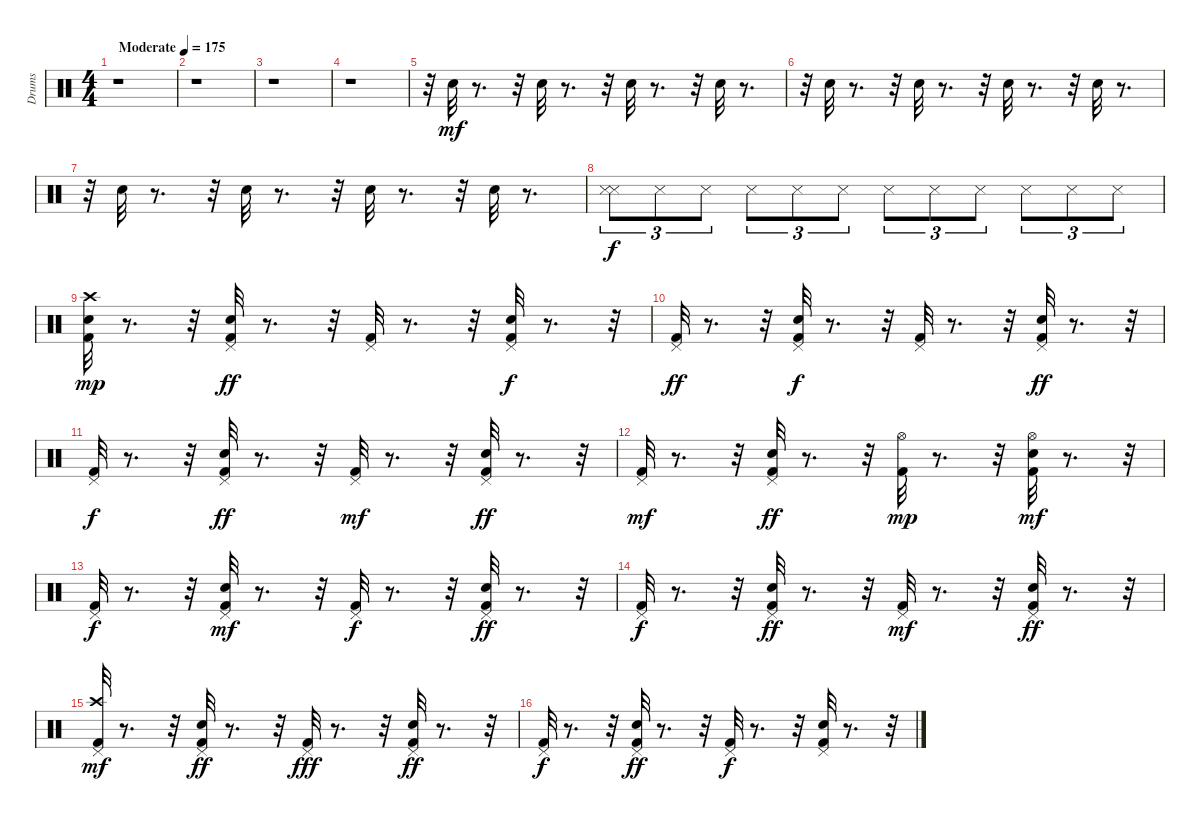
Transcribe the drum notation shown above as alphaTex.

\track ("Drums" "Drums") {instrument percussion}
\staff {score}
\articulation defaults
\ts (4 4)
\tempo (175 "Moderate")
\clef neutral
\ks c
r.1{dy mf} |
r.1 |
r.1 |
r.1 |
r.32 "Hand Clap (hit)".32 r.8{d} r.32 "Hand Clap (hit)".32 r.8{d} r.32 "Hand Clap (hit)".32 r.8{d} r.32 "Hand Clap (hit)".32 r.8{d} |
r.32 "Hand Clap (hit)".32 r.8{d} r.32 "Hand Clap (hit)".32 r.8{d} r.32 "Hand Clap (hit)".32 r.8{d} r.32 "Hand Clap (hit)".32 r.8{d} |
r.32 "Hand Clap (hit)".32 r.8{d} r.32 "Hand Clap (hit)".32 r.8{d} r.32 "Hand Clap (hit)".32 r.8{d} r.32 "Hand Clap (hit)".32 r.8{d} |
("Snare (side stick) 3" "Snare (side stick) 3").8{tu (3 2) dy f} "Snare (side stick) 3".8{tu (3 2)} "Snare (side stick) 3".8{tu (3 2)} "Snare (side stick) 3".8{tu (3 2)} "Snare (side stick) 3".8{tu (3 2)} "Snare (side stick) 3".8{tu (3 2)} "Snare (side stick) 3".8{tu (3 2)} "Snare (side stick) 3".8{tu (3 2)} "Snare (side stick) 3".8{tu (3 2)} "Snare (side stick) 3".8{tu (3 2)} "Snare (side stick) 3".8{tu (3 2)} "Snare (side stick) 3".8{tu (3 2)} |
("Hand Clap (hit)" "Kick (hit) 2" "Crash high (hit)").32{dy mp} r.8{d} r.32 ("Pedal Hi-Hat (hit)" "Snare (hit) 2" "Kick (hit) 2").32{dy ff} r.8{d} r.32 ("Kick (hit) 2" "Pedal Hi-Hat (hit)").32 r.8{d} r.32 ("Snare (hit) 2" "Kick (hit) 2" "Pedal Hi-Hat (hit)").32{dy f} r.8{d} r.32 |
("Pedal Hi-Hat (hit)" "Kick (hit) 2").32{dy ff} r.8{d} r.32 ("Snare (hit) 2" "Kick (hit) 2" "Pedal Hi-Hat (hit)").32{dy f} r.8{d} r.32 ("Kick (hit) 2" "Pedal Hi-Hat (hit)").32 r.8{d} r.32 ("Kick (hit) 2" "Snare (hit) 2" "Pedal Hi-Hat (hit)").32{dy ff} r.8{d} r.32 |
("Kick (hit) 2" "Pedal Hi-Hat (hit)").32{dy f} r.8{d} r.32 ("Kick (hit) 2" "Pedal Hi-Hat (hit)" "Snare (hit) 2").32{dy ff} r.8{d} r.32 ("Kick (hit) 2" "Pedal Hi-Hat (hit)").32{dy mf} r.8{d} r.32 ("Kick (hit) 2" "Snare (hit) 2" "Pedal Hi-Hat (hit)").32{dy ff} r.8{d} r.32 |
("Pedal Hi-Hat (hit)" "Kick (hit) 2").32{dy mf} r.8{d} r.32 ("Pedal Hi-Hat (hit)" "Snare (hit) 2" "Kick (hit) 2").32{dy ff} r.8{d} r.32 ("Kick (hit) 2" "Hi-Hat (open)").32{dy mp} r.8{d} r.32 ("Snare (hit) 2" "Kick (hit) 2" "Hi-Hat (open)").32{dy mf} r.8{d} r.32 |
("Kick (hit) 2" "Pedal Hi-Hat (hit)").32{dy f} r.8{d} r.32 ("Kick (hit) 2" "Snare (hit) 2" "Pedal Hi-Hat (hit)").32{dy mf} r.8{d} r.32 ("Pedal Hi-Hat (hit)" "Kick (hit) 2").32{dy f} r.8{d} r.32 ("Snare (hit) 2" "Kick (hit) 2" "Pedal Hi-Hat (hit)").32{dy ff} r.8{d} r.32 |
("Kick (hit) 2" "Pedal Hi-Hat (hit)").32{dy f} r.8{d} r.32 ("Pedal Hi-Hat (hit)" "Snare (hit) 2" "Kick (hit) 2").32{dy ff} r.8{d} r.32 ("Kick (hit) 2" "Pedal Hi-Hat (hit)").32{dy mf} r.8{d} r.32 ("Kick (hit) 2" "Pedal Hi-Hat (hit)" "Snare (hit) 2").32{dy ff} r.8{d} r.32 |
("Crash high (hit)" "Pedal Hi-Hat (hit)" "Kick (hit) 2").32{dy mf} r.8{d} r.32 ("Kick (hit) 2" "Pedal Hi-Hat (hit)" "Snare (hit) 2").32{dy ff} r.8{d} r.32 ("Kick (hit) 2" "Pedal Hi-Hat (hit)").32{dy fff} r.8{d} r.32 ("Snare (hit) 2" "Pedal Hi-Hat (hit)" "Kick (hit) 2").32{dy ff} r.8{d} r.32 |
("Pedal Hi-Hat (hit)" "Kick (hit) 2").32{dy f} r.8{d} r.32 ("Snare (hit) 2" "Kick (hit) 2" "Pedal Hi-Hat (hit)").32{dy ff} r.8{d} r.32 ("Pedal Hi-Hat (hit)" "Kick (hit) 2").32{dy f} r.8{d} r.32 ("Kick (hit) 2" "Snare (hit) 2" "Pedal Hi-Hat (hit)").32 r.8{d} r.32
